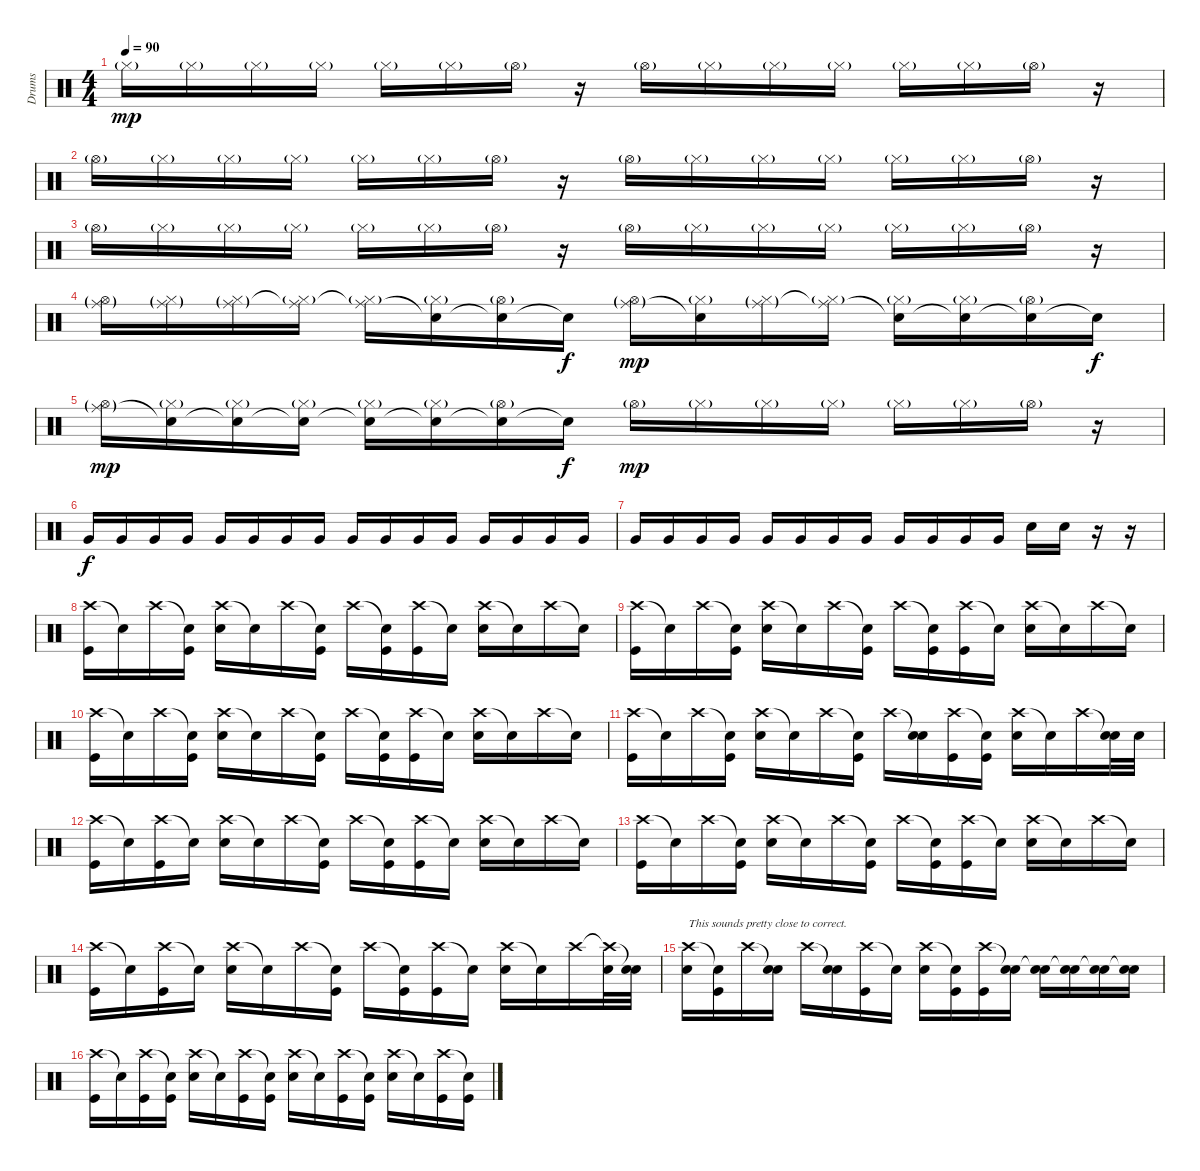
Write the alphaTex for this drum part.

\track ("Drums" "Drums") {instrument percussion}
\staff {score}
\articulation defaults
\ts (4 4)
\tempo 90
\clef neutral
\ks c "Hi-Hat (closed)"{g}.16{dy mp} "Hi-Hat (closed)"{g}.16 "Hi-Hat (closed)"{g}.16 "Hi-Hat (closed)"{g}.16 "Hi-Hat (closed)"{g}.16 "Hi-Hat (closed)"{g}.16 "Hi-Hat (open)"{g}.16
r.16 "Hi-Hat (open)"{g}.16 "Hi-Hat (closed)"{g}.16 "Hi-Hat (closed)"{g}.16 "Hi-Hat (closed)"{g}.16 "Hi-Hat (closed)"{g}.16 "Hi-Hat (closed)"{g}.16 "Hi-Hat (open)"{g}.16 r.16 |
"Hi-Hat (open)"{g}.16 "Hi-Hat (closed)"{g}.16 "Hi-Hat (closed)"{g}.16 "Hi-Hat (closed)"{g}.16 "Hi-Hat (closed)"{g}.16 "Hi-Hat (closed)"{g}.16 "Hi-Hat (open)"{g}.16 r.16 "Hi-Hat (open)"{g}.16 "Hi-Hat (closed)"{g}.16 "Hi-Hat (closed)"{g}.16 "Hi-Hat (closed)"{g}.16 "Hi-Hat (closed)"{g}.16 "Hi-Hat (closed)"{g}.16 "Hi-Hat (open)"{g}.16 r.16 |
"Hi-Hat (open)"{g}.16 "Hi-Hat (closed)"{g}.16 "Hi-Hat (closed)"{g}.16 "Hi-Hat (closed)"{g}.16 "Hi-Hat (closed)"{g}.16 "Hi-Hat (closed)"{g}.16 "Hi-Hat (open)"{g}.16 r.16 "Hi-Hat (open)"{g}.16 "Hi-Hat (closed)"{g}.16 "Hi-Hat (closed)"{g}.16 "Hi-Hat (closed)"{g}.16 "Hi-Hat (closed)"{g}.16 "Hi-Hat (closed)"{g}.16 "Hi-Hat (open)"{g}.16 r.16 |
("Ride (middle)"{g} "Hi-Hat (open)"{g}).16 ("Ride (middle)"{g} "Hi-Hat (closed)"{g}).16 ("Ride (middle)"{g} "Hi-Hat (closed)"{g}).16 ("Ride (middle)"{t} "Hi-Hat (closed)"{g}).16 ("Ride (middle)"{t} "Hi-Hat (closed)"{g}).16 ("Snare (hit)"{t} "Hi-Hat (closed)"{g}).16 ("Snare (hit)"{t} "Hi-Hat (open)"{g}).16 "Snare (hit)"{t}.16{dy f} ("Ride (middle)"{g} "Hi-Hat (open)"{g}).16{dy mp} ("Snare (hit)"{t} "Hi-Hat (closed)"{g}).16 ("Ride (middle)"{g} "Hi-Hat (closed)"{g}).16 ("Ride (middle)"{t} "Hi-Hat (closed)"{g}).16 ("Snare (hit)"{t} "Hi-Hat (closed)"{g}).16 ("Snare (hit)"{t} "Hi-Hat (closed)"{g}).16 ("Snare (hit)"{t} "Hi-Hat (open)"{g}).16 "Snare (hit)"{t}.16{dy f} |
("Ride (middle)"{g} "Hi-Hat (open)"{g}).16{dy mp} ("Snare (hit)"{t} "Hi-Hat (closed)"{g}).16 ("Snare (hit)"{t} "Hi-Hat (closed)"{g}).16 ("Snare (hit)"{t} "Hi-Hat (closed)"{g}).16 ("Snare (hit)"{t} "Hi-Hat (closed)"{g}).16 ("Snare (hit)"{t} "Hi-Hat (closed)"{g}).16 ("Snare (hit)"{t} "Hi-Hat (open)"{g}).16 "Snare (hit)"{t}.16{dy f} "Hi-Hat (open)"{g}.16{dy mp} "Hi-Hat (closed)"{g}.16 "Hi-Hat (closed)"{g}.16 "Hi-Hat (closed)"{g}.16 "Hi-Hat (closed)"{g}.16 "Hi-Hat (closed)"{g}.16 "Hi-Hat (open)"{g}.16 r.16 |
"Very Low Tom (hit)".16{dy f} "Very Low Tom (hit)".16 "Very Low Tom (hit)".16 "Very Low Tom (hit)".16 "Very Low Tom (hit)".16 "Very Low Tom (hit)".16 "Very Low Tom (hit)".16 "Very Low Tom (hit)".16 "Very Low Tom (hit)".16 "Very Low Tom (hit)".16 "Very Low Tom (hit)".16 "Very Low Tom (hit)".16 "Very Low Tom (hit)".16 "Very Low Tom (hit)".16 "Very Low Tom (hit)".16 "Very Low Tom (hit)".16 |
"Very Low Tom (hit)".16 "Very Low Tom (hit)".16 "Very Low Tom (hit)".16 "Very Low Tom (hit)".16 "Very Low Tom (hit)".16 "Very Low Tom (hit)".16 "Very Low Tom (hit)".16 "Very Low Tom (hit)".16 "Very Low Tom (hit)".16 "Very Low Tom (hit)".16 "Very Low Tom (hit)".16 "Very Low Tom (hit)".16 "Electric Snare (hit)".16 "Electric Snare (hit)".16 r.16 r.16 |
("Crash high (hit)" "Kick (hit)").16 "Snare (hit)"{t}.16 "Crash high (hit)".16 ("Snare (hit)"{t} "Kick (hit)").16 ("Crash high (hit)" "Electric Snare (hit)").16 "Snare (hit)"{t}.16 "Crash high (hit)".16 ("Snare (hit)"{t} "Kick (hit)").16 "Crash high (hit)".16 ("Snare (hit)"{t} "Kick (hit)").16 ("Crash high (hit)" "Kick (hit)").16 "Snare (hit)"{t}.16 ("Crash high (hit)" "Electric Snare (hit)").16 "Snare (hit)"{t}.16 "Crash high (hit)".16 "Snare (hit)"{t}.16 |
("Crash high (hit)" "Kick (hit)").16 "Snare (hit)"{t}.16 "Crash high (hit)".16 ("Snare (hit)"{t} "Kick (hit)").16 ("Crash high (hit)" "Electric Snare (hit)").16 "Snare (hit)"{t}.16 "Crash high (hit)".16 ("Snare (hit)"{t} "Kick (hit)").16 "Crash high (hit)".16 ("Snare (hit)"{t} "Kick (hit)").16 ("Crash high (hit)" "Kick (hit)").16 "Snare (hit)"{t}.16 ("Crash high (hit)" "Electric Snare (hit)").16 "Snare (hit)"{t}.16 "Crash high (hit)".16 "Snare (hit)"{t}.16 |
("Crash high (hit)" "Kick (hit)").16 "Snare (hit)"{t}.16 "Crash high (hit)".16 ("Snare (hit)"{t} "Kick (hit)").16 ("Crash high (hit)" "Electric Snare (hit)").16 "Snare (hit)"{t}.16 "Crash high (hit)".16 ("Snare (hit)"{t} "Kick (hit)").16 "Crash high (hit)".16 ("Snare (hit)"{t} "Kick (hit)").16 ("Crash high (hit)" "Kick (hit)").16 "Snare (hit)"{t}.16 ("Crash high (hit)" "Electric Snare (hit)").16 "Snare (hit)"{t}.16 "Crash high (hit)".16 "Snare (hit)"{t}.16 |
("Crash high (hit)" "Kick (hit)").16 "Snare (hit)"{t}.16 "Crash high (hit)".16 ("Snare (hit)"{t} "Kick (hit)").16 ("Crash high (hit)" "Electric Snare (hit)").16 "Snare (hit)"{t}.16 "Crash high (hit)".16 ("Snare (hit)"{t} "Kick (hit)").16 "Crash high (hit)".16 ("Snare (hit)"{t} "Electric Snare (hit)").16 ("Crash high (hit)" "Kick (hit)").16 ("Snare (hit)"{t} "Kick (hit)").16 ("Crash high (hit)" "Electric Snare (hit)").16 "Snare (hit)"{t}.16 "Crash high (hit)".16 ("Snare (hit)"{t} "Electric Snare (hit)").32 "Electric Snare (hit)".32 |
("Crash high (hit)" "Kick (hit)").16 "Snare (hit)"{t}.16 ("Crash high (hit)" "Kick (hit)").16 "Snare (hit)"{t}.16 ("Crash high (hit)" "Electric Snare (hit)").16 "Snare (hit)"{t}.16 "Crash high (hit)".16 ("Snare (hit)"{t} "Kick (hit)").16 "Crash high (hit)".16 ("Snare (hit)"{t} "Kick (hit)").16 ("Crash high (hit)" "Kick (hit)").16 "Snare (hit)"{t}.16 ("Crash high (hit)" "Electric Snare (hit)").16 "Snare (hit)"{t}.16 "Crash high (hit)".16 "Snare (hit)"{t}.16 |
("Crash high (hit)" "Kick (hit)").16 "Snare (hit)"{t}.16 "Crash high (hit)".16 ("Snare (hit)"{t} "Kick (hit)").16 ("Crash high (hit)" "Electric Snare (hit)").16 "Snare (hit)"{t}.16 "Crash high (hit)".16 ("Snare (hit)"{t} "Kick (hit)").16 "Crash high (hit)".16 ("Snare (hit)"{t} "Kick (hit)").16 ("Crash high (hit)" "Kick (hit)").16 "Snare (hit)"{t}.16 ("Crash high (hit)" "Electric Snare (hit)").16 "Snare (hit)"{t}.16 "Crash high (hit)".16 "Snare (hit)"{t}.16 |
("Crash high (hit)" "Kick (hit)").16 "Snare (hit)"{t}.16 ("Crash high (hit)" "Kick (hit)").16 "Snare (hit)"{t}.16 ("Crash high (hit)" "Electric Snare (hit)").16 "Snare (hit)"{t}.16 "Crash high (hit)".16 ("Snare (hit)"{t} "Kick (hit)").16 "Crash high (hit)".16 ("Snare (hit)"{t} "Kick (hit)").16 ("Crash high (hit)" "Kick (hit)").16 "Snare (hit)"{t}.16 ("Crash high (hit)" "Electric Snare (hit)").16 "Snare (hit)"{t}.16 "Crash high (hit)".16 ("Crash high (hit)"{t} "Electric Snare (hit)").32 ("Snare (hit)"{t} "Electric Snare (hit)").32 |
("Crash high (hit)" "Electric Snare (hit)").16{txt "This sounds pretty close to correct."} ("Snare (hit)"{t} "Kick (hit)").16 "Crash high (hit)".16 ("Snare (hit)"{t} "Electric Snare (hit)").16 "Crash high (hit)".16 ("Snare (hit)"{t} "Electric Snare (hit)").16 ("Crash high (hit)" "Kick (hit)").16 "Snare (hit)"{t}.16 ("Crash high (hit)" "Electric Snare (hit)").16 ("Snare (hit)"{t} "Kick (hit)").16 ("Crash high (hit)" "Kick (hit)").16 ("Snare (hit)"{t} "Electric Snare (hit)").16 ("Snare (hit)"{t} "Electric Snare (hit)").16 ("Snare (hit)"{t} "Electric Snare (hit)").16 ("Snare (hit)"{t} "Electric Snare (hit)").16 ("Snare (hit)"{t} "Electric Snare (hit)").16 |
("Crash high (hit)" "Kick (hit)").16 "Snare (hit)"{t}.16 ("Crash high (hit)" "Kick (hit)").16 ("Snare (hit)"{t} "Kick (hit)").16 ("Crash high (hit)" "Electric Snare (hit)").16 "Snare (hit)"{t}.16 ("Crash high (hit)" "Kick (hit)").16 ("Snare (hit)"{t} "Kick (hit)").16 ("Crash high (hit)" "Electric Snare (hit)").16 "Snare (hit)"{t}.16 ("Crash high (hit)" "Kick (hit)").16 ("Snare (hit)"{t} "Kick (hit)").16 ("Crash high (hit)" "Electric Snare (hit)").16 "Snare (hit)"{t}.16 ("Crash high (hit)" "Kick (hit)").16 ("Snare (hit)"{t} "Kick (hit)").16
